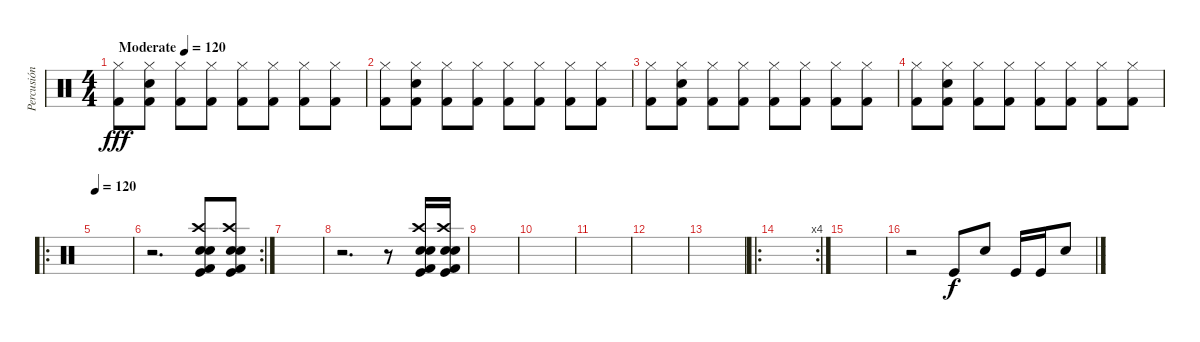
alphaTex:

\track ("Percusión" "Percusión") {instrument percussion}
\staff {score}
\articulation defaults
\ts (4 4)
\tempo (120 "Moderate")
\tempo 220
\tempo (120 "Moderate")
\clef neutral
\ks c
("Hi-Hat (closed)" "Kick (hit) 2").8{dy fff} ("Hi-Hat (closed)" "Snare (hit) 2" "Kick (hit) 2").8 ("Hi-Hat (closed)" "Kick (hit) 2").8 ("Hi-Hat (closed)" "Kick (hit) 2").8 ("Hi-Hat (closed)" "Kick (hit) 2").8 ("Hi-Hat (closed)" "Kick (hit) 2").8 ("Hi-Hat (closed)" "Kick (hit) 2").8 ("Hi-Hat (closed)" "Kick (hit) 2").8 |
("Hi-Hat (closed)" "Kick (hit) 2").8 ("Hi-Hat (closed)" "Snare (hit) 2" "Kick (hit) 2").8 ("Hi-Hat (closed)" "Kick (hit) 2").8 ("Hi-Hat (closed)" "Kick (hit) 2").8 ("Hi-Hat (closed)" "Kick (hit) 2").8 ("Hi-Hat (closed)" "Kick (hit) 2").8 ("Hi-Hat (closed)" "Kick (hit) 2").8 ("Hi-Hat (closed)" "Kick (hit) 2").8 |
("Hi-Hat (closed)" "Kick (hit) 2").8 ("Hi-Hat (closed)" "Snare (hit) 2" "Kick (hit) 2").8 ("Hi-Hat (closed)" "Kick (hit) 2").8 ("Hi-Hat (closed)" "Kick (hit) 2").8 ("Hi-Hat (closed)" "Kick (hit) 2").8 ("Hi-Hat (closed)" "Kick (hit) 2").8 ("Hi-Hat (closed)" "Kick (hit) 2").8 ("Hi-Hat (closed)" "Kick (hit) 2").8 |
("Hi-Hat (closed)" "Kick (hit) 2").8 ("Hi-Hat (closed)" "Snare (hit) 2" "Kick (hit) 2").8 ("Hi-Hat (closed)" "Kick (hit) 2").8 ("Hi-Hat (closed)" "Kick (hit) 2").8 ("Hi-Hat (closed)" "Kick (hit) 2").8 ("Hi-Hat (closed)" "Kick (hit) 2").8 ("Hi-Hat (closed)" "Kick (hit) 2").8 ("Hi-Hat (closed)" "Kick (hit) 2").8 |
\ro
\tempo 120
|
\rc 2
r.2{d} ("Kick (hit)" "Kick (hit) 2" "Crash high (hit)" "Electric Snare (hit)" "Snare (hit) 2").8 ("Kick (hit)" "Kick (hit) 2" "Crash high (hit)" "Electric Snare (hit)" "Snare (hit) 2").8 |
|
r.2{d} r.8 ("Kick (hit)" "Kick (hit) 2" "Crash high (hit)" "Electric Snare (hit)" "Snare (hit) 2").16 ("Kick (hit)" "Kick (hit) 2" "Crash high (hit)" "Electric Snare (hit)" "Snare (hit) 2").16 |
|
|
|
|
|
\ro
\rc 4
|
|
r.2 "Kick (hit)".8{dy f} "Snare (hit) 2".8 "Kick (hit)".16 "Kick (hit)".16 "Snare (hit) 2".8
